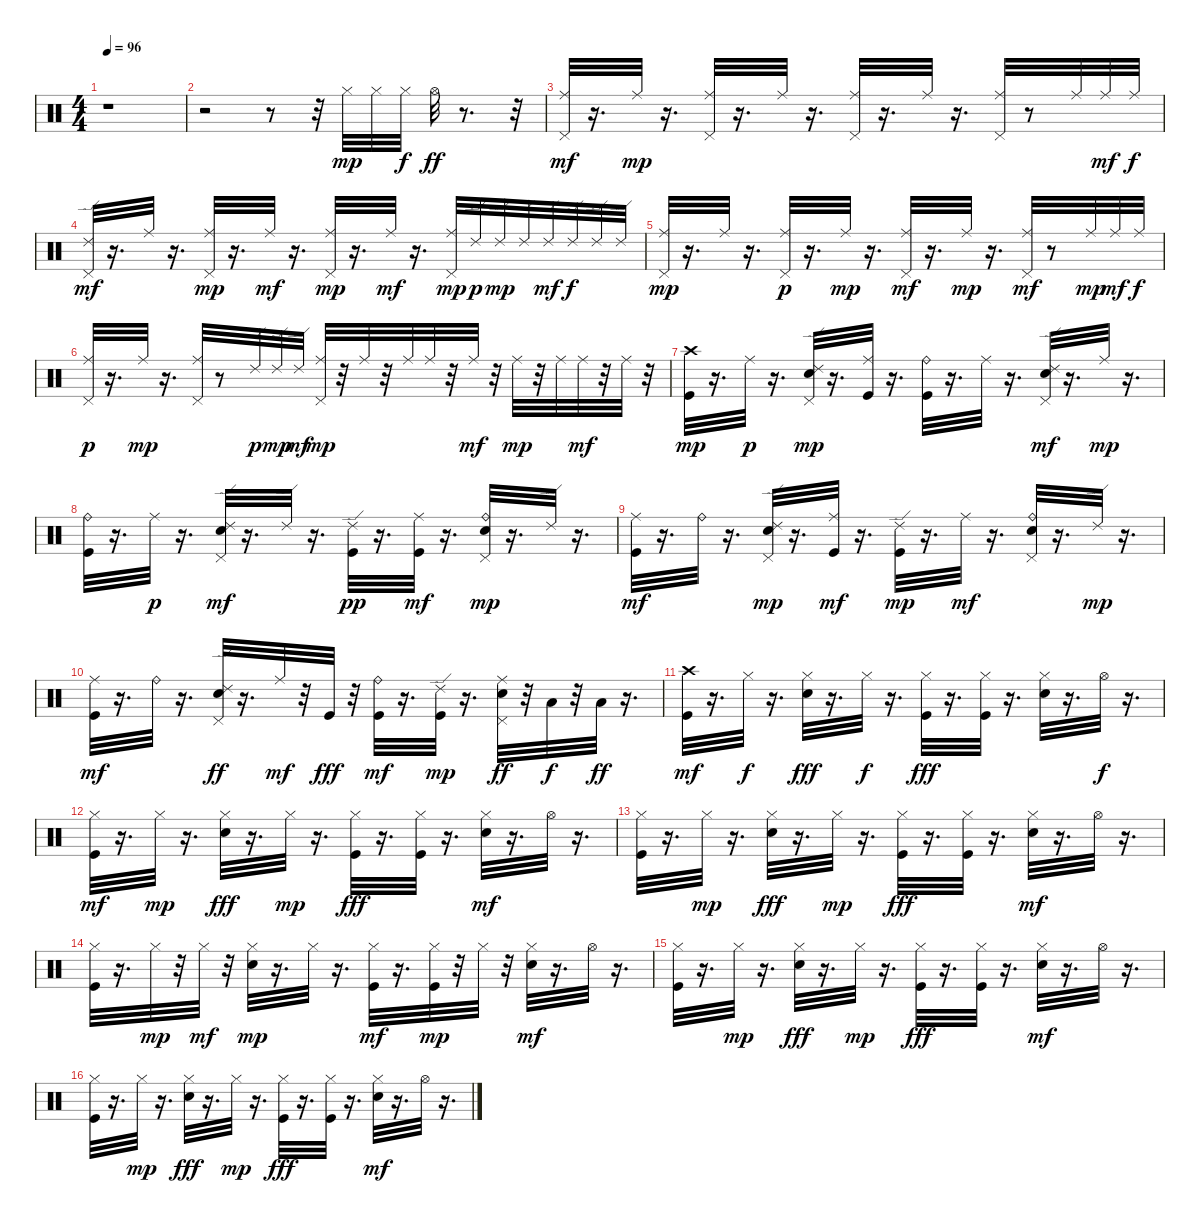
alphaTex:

\track "" {instrument percussion}
\staff {score}
\articulation defaults
\ts (4 4)
\tempo 96
\clef neutral
\ks c
r.1{dy mp} |
r.2 r.8 r.32 "Hi-Hat (closed)".32 "Hi-Hat (closed)".32 "Hi-Hat (closed)".32{dy f} "Hi-Hat (open)".32{dy ff} r.8{d} r.32 |
("Ride (middle)" "Pedal Hi-Hat (hit)").32{dy mf} r.16{d} "Ride (middle)".32{dy mp} r.16{d} ("Ride (middle)" "Pedal Hi-Hat (hit)").32 r.16{d} "Ride (middle)".32 r.16{d} ("Ride (middle)" "Pedal Hi-Hat (hit)").32 r.16{d} "Ride (middle)".32 r.16{d} ("Ride (middle)" "Pedal Hi-Hat (hit)").32 r.8 "Ride (middle)".32 "Ride (middle)".32{dy mf} "Ride (middle)".32{dy f} |
("Ride (edge) 2" "Pedal Hi-Hat (hit)").32{dy mf} r.16{d} "Ride (middle)".32 r.16{d} ("Ride (middle)" "Pedal Hi-Hat (hit)").32{dy mp} r.16{d} "Ride (middle)".32{dy mf} r.16{d} ("Ride (middle)" "Pedal Hi-Hat (hit)").32{dy mp} r.16{d} "Ride (middle)".32{dy mf} r.16{d} ("Ride (middle)" "Pedal Hi-Hat (hit)").32{dy mp} "Ride (edge) 2".32{dy p} "Ride (edge) 2".32{dy mp} "Ride (edge) 2".32 "Ride (edge) 2".32{dy mf} "Ride (edge) 2".32{dy f} "Ride (edge) 2".32 "Ride (edge) 2".32 |
("Ride (middle)" "Pedal Hi-Hat (hit)").32{dy mp} r.16{d} "Ride (middle)".32 r.16{d} ("Ride (middle)" "Pedal Hi-Hat (hit)").32{dy p} r.16{d} "Ride (middle)".32{dy mp} r.16{d} ("Ride (middle)" "Pedal Hi-Hat (hit)").32{dy mf} r.16{d} "Ride (middle)".32{dy mp} r.16{d} ("Ride (middle)" "Pedal Hi-Hat (hit)").32{dy mf} r.8 "Ride (middle)".32{dy mp} "Ride (middle)".32{dy mf} "Ride (middle)".32{dy f} |
("Ride (middle)" "Pedal Hi-Hat (hit)").32{dy p} r.16{d} "Ride (middle)".32{dy mp} r.16{d} ("Ride (middle)" "Pedal Hi-Hat (hit)").32 r.8 "Ride (edge) 2".32{dy p} "Ride (edge) 2".32{dy mp} "Ride (edge) 2".32{dy mf} ("Ride (middle)" "Pedal Hi-Hat (hit)").32{dy mp} r.32 "Ride (middle)".32 r.32 "Ride (middle)".32 "Ride (middle)".32 r.32 "Ride (middle)".32{dy mf} r.32 "Ride (middle)".32{dy mp} r.32 "Ride (middle)".32 "Ride (middle)".32{dy mf} r.32 "Ride (middle)".32 r.32 |
("Kick (hit)" "Crash high (hit)").32{dy mp} r.16{d} "Ride (middle)".32{dy p} r.16{d} ("Electric Snare (hit)" "Ride (edge) 2" "Pedal Hi-Hat (hit)").32{dy mp} r.16{d} ("Kick (hit)" "Ride (middle)").32 r.16{d} ("Kick (hit)" "Ride (bell)").32 r.16{d} "Ride (middle)".32 r.16{d} ("Electric Snare (hit)" "Ride (edge) 2" "Pedal Hi-Hat (hit)").32{dy mf} r.16{d} "Ride (middle)".32{dy mp} r.16{d} |
("Kick (hit)" "Ride (bell)").32 r.16{d} "Ride (middle)".32{dy p} r.16{d} ("Electric Snare (hit)" "Ride (edge) 2" "Pedal Hi-Hat (hit)").32{dy mf} r.16{d} "Ride (edge) 2".32 r.16{d} ("Kick (hit)" "Ride (edge) 2").32{dy pp} r.16{d} ("Kick (hit)" "Ride (middle)").32{dy mf} r.16{d} ("Electric Snare (hit)" "Ride (bell)" "Pedal Hi-Hat (hit)").32{dy mp} r.16{d} "Ride (edge) 2".32 r.16{d} |
("Kick (hit)" "Ride (middle)").32{dy mf} r.16{d} "Ride (bell)".32 r.16{d} ("Electric Snare (hit)" "Ride (edge) 2" "Pedal Hi-Hat (hit)").32{dy mp} r.16{d} ("Kick (hit)" "Ride (middle)").32{dy mf} r.16{d} ("Kick (hit)" "Ride (edge) 2").32{dy mp} r.16{d} "Ride (middle)".32{dy mf} r.16{d} ("Electric Snare (hit)" "Ride (bell)" "Pedal Hi-Hat (hit)").32 r.16{d} "Ride (edge) 2".32{dy mp} r.16{d} |
("Kick (hit)" "Ride (middle)").32{dy mf} r.16{d} "Ride (bell)".32 r.16{d} ("Electric Snare (hit)" "Ride (edge) 2" "Pedal Hi-Hat (hit)").32{dy ff} r.16{d} "Ride (middle)".32{dy mf} r.32 "Kick (hit)".32{dy fff} r.32 ("Kick (hit)" "Ride (bell)").32{dy mf} r.16{d} ("Kick (hit)" "Ride (edge) 2").32{dy mp} r.16{d} ("Electric Snare (hit)" "Ride (middle)" "Pedal Hi-Hat (hit)").32{dy ff} r.32 "Low Tom (hit)".32{dy f} r.32 "Low Floor Tom (hit)".32{dy ff} r.16{d} |
("Kick (hit)" "Crash high (hit)").32{dy mf} r.16{d} "Hi-Hat (closed)".32{dy f} r.16{d} ("Electric Snare (hit)" "Hi-Hat (closed)").32{dy fff} r.16{d} "Hi-Hat (closed)".32{dy f} r.16{d} ("Kick (hit)" "Hi-Hat (closed)").32{dy fff} r.16{d} ("Kick (hit)" "Hi-Hat (closed)").32 r.16{d} ("Electric Snare (hit)" "Hi-Hat (closed)").32 r.16{d} "Hi-Hat (open)".32{dy f} r.16{d} |
("Kick (hit)" "Hi-Hat (closed)").32{dy mf} r.16{d} "Hi-Hat (closed)".32{dy mp} r.16{d} ("Electric Snare (hit)" "Hi-Hat (closed)").32{dy fff} r.16{d} "Hi-Hat (closed)".32{dy mp} r.16{d} ("Kick (hit)" "Hi-Hat (closed)").32{dy fff} r.16{d} ("Kick (hit)" "Hi-Hat (closed)").32 r.16{d} ("Electric Snare (hit)" "Hi-Hat (closed)").32{dy mf} r.16{d} "Hi-Hat (open)".32 r.16{d} |
("Kick (hit)" "Hi-Hat (closed)").32 r.16{d} "Hi-Hat (closed)".32{dy mp} r.16{d} ("Electric Snare (hit)" "Hi-Hat (closed)").32{dy fff} r.16{d} "Hi-Hat (closed)".32{dy mp} r.16{d} ("Kick (hit)" "Hi-Hat (closed)").32{dy fff} r.16{d} ("Kick (hit)" "Hi-Hat (closed)").32 r.16{d} ("Electric Snare (hit)" "Hi-Hat (closed)").32{dy mf} r.16{d} "Hi-Hat (open)".32 r.16{d} |
("Kick (hit)" "Hi-Hat (closed)").32 r.16{d} "Hi-Hat (closed)".32{dy mp} r.32 "Hi-Hat (closed)".32{dy mf} r.32 ("Electric Snare (hit)" "Hi-Hat (closed)").32{dy mp} r.16{d} "Hi-Hat (closed)".32 r.16{d} ("Kick (hit)" "Hi-Hat (closed)").32{dy mf} r.16{d} ("Kick (hit)" "Hi-Hat (closed)").32{dy mp} r.32 "Hi-Hat (closed)".32 r.32 ("Electric Snare (hit)" "Hi-Hat (closed)").32{dy mf} r.16{d} "Hi-Hat (open)".32 r.16{d} |
("Kick (hit)" "Hi-Hat (closed)").32 r.16{d} "Hi-Hat (closed)".32{dy mp} r.16{d} ("Electric Snare (hit)" "Hi-Hat (closed)").32{dy fff} r.16{d} "Hi-Hat (closed)".32{dy mp} r.16{d} ("Kick (hit)" "Hi-Hat (closed)").32{dy fff} r.16{d} ("Kick (hit)" "Hi-Hat (closed)").32 r.16{d} ("Electric Snare (hit)" "Hi-Hat (closed)").32{dy mf} r.16{d} "Hi-Hat (open)".32 r.16{d} |
("Kick (hit)" "Hi-Hat (closed)").32 r.16{d} "Hi-Hat (closed)".32{dy mp} r.16{d} ("Electric Snare (hit)" "Hi-Hat (closed)").32{dy fff} r.16{d} "Hi-Hat (closed)".32{dy mp} r.16{d} ("Kick (hit)" "Hi-Hat (closed)").32{dy fff} r.16{d} ("Kick (hit)" "Hi-Hat (closed)").32 r.16{d} ("Electric Snare (hit)" "Hi-Hat (closed)").32{dy mf} r.16{d} "Hi-Hat (open)".32 r.16{d}
